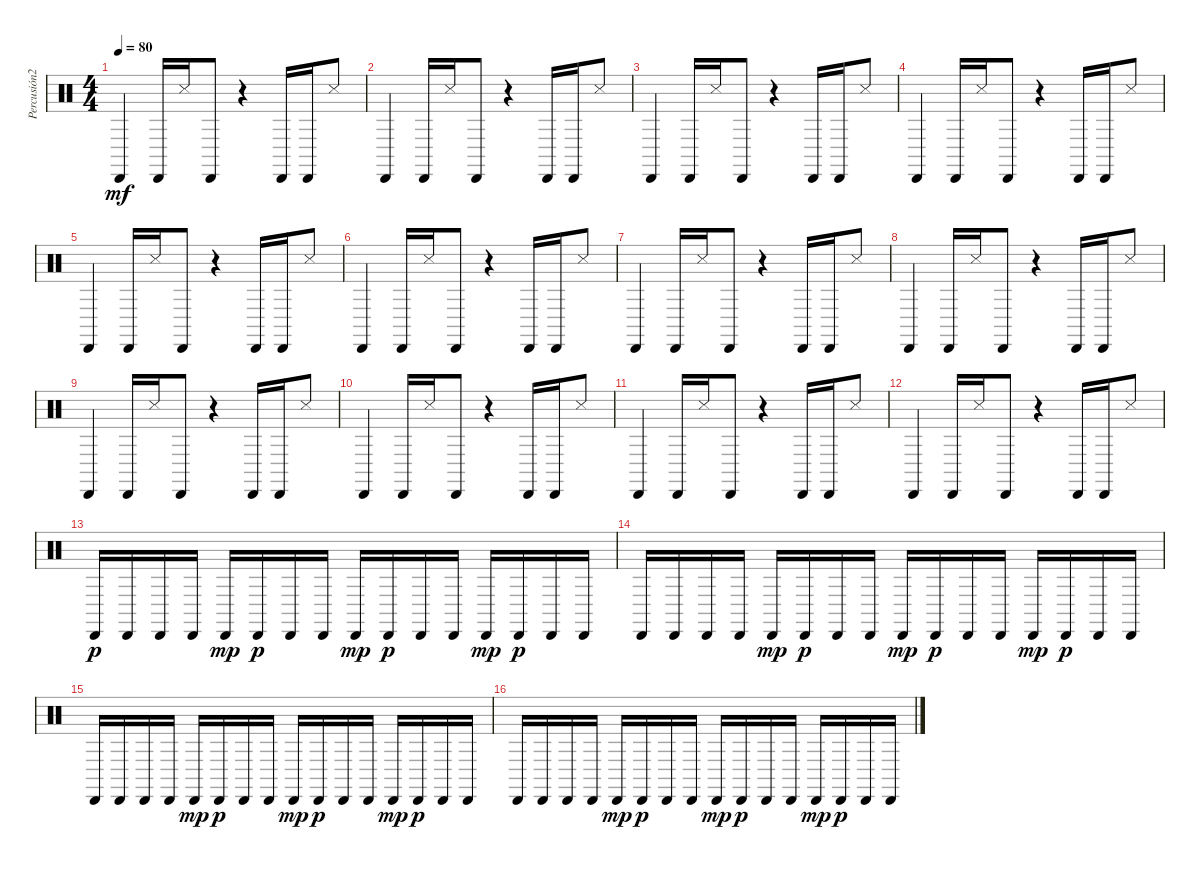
\track ("Percusión2" "Percusión2") {instrument percussion}
\staff {score}
\articulation defaults
\ts (4 4)
\tempo 80
\clef neutral
\ks c "Cabasa (hit)".4{dy mf} "Cabasa (hit)".16 "Snare (side stick) 3".16 "Cabasa (hit)".8
r.4 "Cabasa (hit)".16 "Cabasa (hit)".16 "Snare (side stick) 3".8 |
"Cabasa (hit)".4 "Cabasa (hit)".16 "Snare (side stick) 3".16 "Cabasa (hit)".8 r.4 "Cabasa (hit)".16 "Cabasa (hit)".16 "Snare (side stick) 3".8 |
"Cabasa (hit)".4 "Cabasa (hit)".16 "Snare (side stick) 3".16 "Cabasa (hit)".8 r.4 "Cabasa (hit)".16 "Cabasa (hit)".16 "Snare (side stick) 3".8 |
"Cabasa (hit)".4 "Cabasa (hit)".16 "Snare (side stick) 3".16 "Cabasa (hit)".8 r.4 "Cabasa (hit)".16 "Cabasa (hit)".16 "Snare (side stick) 3".8 |
"Cabasa (hit)".4 "Cabasa (hit)".16 "Snare (side stick) 3".16 "Cabasa (hit)".8 r.4 "Cabasa (hit)".16 "Cabasa (hit)".16 "Snare (side stick) 3".8 |
"Cabasa (hit)".4 "Cabasa (hit)".16 "Snare (side stick) 3".16 "Cabasa (hit)".8 r.4 "Cabasa (hit)".16 "Cabasa (hit)".16 "Snare (side stick) 3".8 |
"Cabasa (hit)".4 "Cabasa (hit)".16 "Snare (side stick) 3".16 "Cabasa (hit)".8 r.4 "Cabasa (hit)".16 "Cabasa (hit)".16 "Snare (side stick) 3".8 |
"Cabasa (hit)".4 "Cabasa (hit)".16 "Snare (side stick) 3".16 "Cabasa (hit)".8 r.4 "Cabasa (hit)".16 "Cabasa (hit)".16 "Snare (side stick) 3".8 |
"Cabasa (hit)".4 "Cabasa (hit)".16 "Snare (side stick) 3".16 "Cabasa (hit)".8 r.4 "Cabasa (hit)".16 "Cabasa (hit)".16 "Snare (side stick) 3".8 |
"Cabasa (hit)".4 "Cabasa (hit)".16 "Snare (side stick) 3".16 "Cabasa (hit)".8 r.4 "Cabasa (hit)".16 "Cabasa (hit)".16 "Snare (side stick) 3".8 |
"Cabasa (hit)".4 "Cabasa (hit)".16 "Snare (side stick) 3".16 "Cabasa (hit)".8 r.4 "Cabasa (hit)".16 "Cabasa (hit)".16 "Snare (side stick) 3".8 |
"Cabasa (hit)".4 "Cabasa (hit)".16 "Snare (side stick) 3".16 "Cabasa (hit)".8 r.4 "Cabasa (hit)".16 "Cabasa (hit)".16 "Snare (side stick) 3".8 |
"Cabasa (hit)".16{dy p} "Cabasa (hit)".16 "Cabasa (hit)".16 "Cabasa (hit)".16 "Cabasa (hit)".16{dy mp} "Cabasa (hit)".16{dy p} "Cabasa (hit)".16 "Cabasa (hit)".16 "Cabasa (hit)".16{dy mp} "Cabasa (hit)".16{dy p} "Cabasa (hit)".16 "Cabasa (hit)".16 "Cabasa (hit)".16{dy mp} "Cabasa (hit)".16{dy p} "Cabasa (hit)".16 "Cabasa (hit)".16 |
"Cabasa (hit)".16 "Cabasa (hit)".16 "Cabasa (hit)".16 "Cabasa (hit)".16 "Cabasa (hit)".16{dy mp} "Cabasa (hit)".16{dy p} "Cabasa (hit)".16 "Cabasa (hit)".16 "Cabasa (hit)".16{dy mp} "Cabasa (hit)".16{dy p} "Cabasa (hit)".16 "Cabasa (hit)".16 "Cabasa (hit)".16{dy mp} "Cabasa (hit)".16{dy p} "Cabasa (hit)".16 "Cabasa (hit)".16 |
"Cabasa (hit)".16 "Cabasa (hit)".16 "Cabasa (hit)".16 "Cabasa (hit)".16 "Cabasa (hit)".16{dy mp} "Cabasa (hit)".16{dy p} "Cabasa (hit)".16 "Cabasa (hit)".16 "Cabasa (hit)".16{dy mp} "Cabasa (hit)".16{dy p} "Cabasa (hit)".16 "Cabasa (hit)".16 "Cabasa (hit)".16{dy mp} "Cabasa (hit)".16{dy p} "Cabasa (hit)".16 "Cabasa (hit)".16 |
"Cabasa (hit)".16 "Cabasa (hit)".16 "Cabasa (hit)".16 "Cabasa (hit)".16 "Cabasa (hit)".16{dy mp} "Cabasa (hit)".16{dy p} "Cabasa (hit)".16 "Cabasa (hit)".16 "Cabasa (hit)".16{dy mp} "Cabasa (hit)".16{dy p} "Cabasa (hit)".16 "Cabasa (hit)".16 "Cabasa (hit)".16{dy mp} "Cabasa (hit)".16{dy p} "Cabasa (hit)".16 "Cabasa (hit)".16
